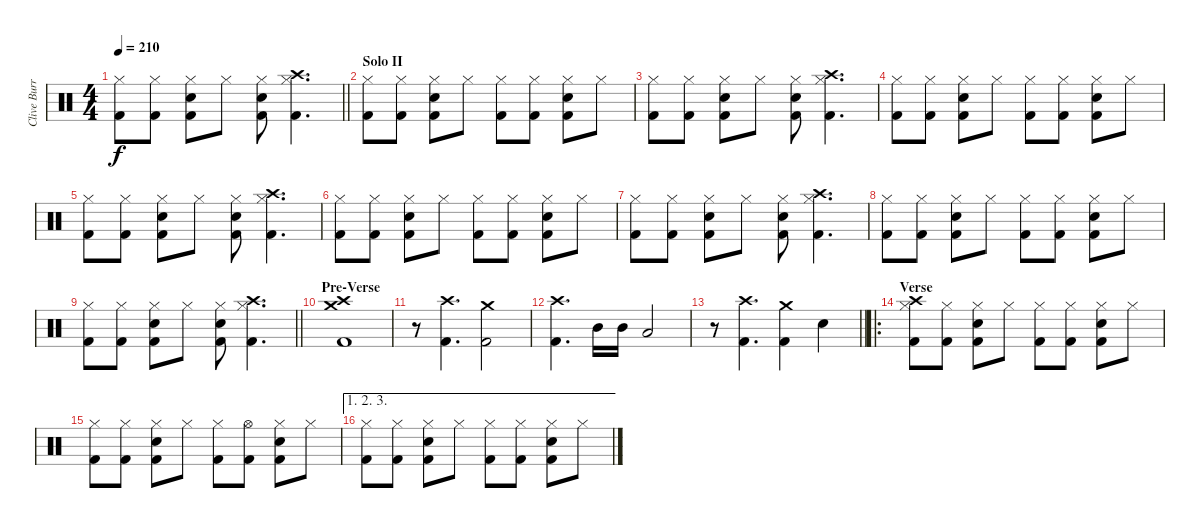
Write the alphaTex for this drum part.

\track ("Clive Burr" "Clive Burr") {instrument percussion}
\staff {score}
\articulation defaults
\ts (4 4)
\tempo 210
\clef neutral
\barLineRight lightlight
\ks c
("Hi-Hat (closed)" "Kick (hit) 2").8{dy f} ("Hi-Hat (closed)" "Kick (hit) 2").8 ("Snare (hit) 2" "Hi-Hat (closed)" "Kick (hit) 2").8 "Hi-Hat (closed)".8 ("Snare (hit) 2" "Hi-Hat (closed)" "Kick (hit) 2").8 ("Crash high (hit)" "Hi-Hat (closed)" "Kick (hit) 2").4{d} |
\section ("" "Solo II")
("Hi-Hat (closed)" "Kick (hit) 2").8 ("Hi-Hat (closed)" "Kick (hit) 2").8 ("Snare (hit) 2" "Hi-Hat (closed)" "Kick (hit) 2").8 "Hi-Hat (closed)".8 ("Hi-Hat (closed)" "Kick (hit) 2").8 ("Hi-Hat (closed)" "Kick (hit) 2").8 ("Snare (hit) 2" "Hi-Hat (closed)" "Kick (hit) 2").8 "Hi-Hat (closed)".8 |
("Hi-Hat (closed)" "Kick (hit) 2").8 ("Hi-Hat (closed)" "Kick (hit) 2").8 ("Snare (hit) 2" "Hi-Hat (closed)" "Kick (hit) 2").8 "Hi-Hat (closed)".8 ("Snare (hit) 2" "Hi-Hat (closed)" "Kick (hit) 2").8 ("Crash high (hit)" "Hi-Hat (closed)" "Kick (hit) 2").4{d} |
("Hi-Hat (closed)" "Kick (hit) 2").8 ("Hi-Hat (closed)" "Kick (hit) 2").8 ("Snare (hit) 2" "Hi-Hat (closed)" "Kick (hit) 2").8 "Hi-Hat (closed)".8 ("Hi-Hat (closed)" "Kick (hit) 2").8 ("Hi-Hat (closed)" "Kick (hit) 2").8 ("Snare (hit) 2" "Hi-Hat (closed)" "Kick (hit) 2").8 "Hi-Hat (closed)".8 |
("Hi-Hat (closed)" "Kick (hit) 2").8 ("Hi-Hat (closed)" "Kick (hit) 2").8 ("Snare (hit) 2" "Hi-Hat (closed)" "Kick (hit) 2").8 "Hi-Hat (closed)".8 ("Snare (hit) 2" "Hi-Hat (closed)" "Kick (hit) 2").8 ("Crash high (hit)" "Hi-Hat (closed)" "Kick (hit) 2").4{d} |
("Hi-Hat (closed)" "Kick (hit) 2").8 ("Hi-Hat (closed)" "Kick (hit) 2").8 ("Snare (hit) 2" "Hi-Hat (closed)" "Kick (hit) 2").8 "Hi-Hat (closed)".8 ("Hi-Hat (closed)" "Kick (hit) 2").8 ("Hi-Hat (closed)" "Kick (hit) 2").8 ("Snare (hit) 2" "Hi-Hat (closed)" "Kick (hit) 2").8 "Hi-Hat (closed)".8 |
("Hi-Hat (closed)" "Kick (hit) 2").8 ("Hi-Hat (closed)" "Kick (hit) 2").8 ("Snare (hit) 2" "Hi-Hat (closed)" "Kick (hit) 2").8 "Hi-Hat (closed)".8 ("Snare (hit) 2" "Hi-Hat (closed)" "Kick (hit) 2").8 ("Crash high (hit)" "Hi-Hat (closed)" "Kick (hit) 2").4{d} |
("Hi-Hat (closed)" "Kick (hit) 2").8 ("Hi-Hat (closed)" "Kick (hit) 2").8 ("Snare (hit) 2" "Hi-Hat (closed)" "Kick (hit) 2").8 "Hi-Hat (closed)".8 ("Hi-Hat (closed)" "Kick (hit) 2").8 ("Hi-Hat (closed)" "Kick (hit) 2").8 ("Snare (hit) 2" "Hi-Hat (closed)" "Kick (hit) 2").8 "Hi-Hat (closed)".8 |
\barLineRight lightlight
("Hi-Hat (closed)" "Kick (hit) 2").8 ("Hi-Hat (closed)" "Kick (hit) 2").8 ("Snare (hit) 2" "Hi-Hat (closed)" "Kick (hit) 2").8 "Hi-Hat (closed)".8 ("Snare (hit) 2" "Hi-Hat (closed)" "Kick (hit) 2").8 ("Crash high (hit)" "Hi-Hat (closed)" "Kick (hit) 2").4{d} |
\section ("" "Pre-Verse")
("Crash high (hit)" "Crash medium (hit)" "Kick (hit) 2").1 |
r.8 ("Crash high (hit)" "Kick (hit) 2").4{d} ("Crash medium (hit)" "Kick (hit) 2").2 |
("Crash high (hit)" "Kick (hit) 2").4{d} "Mid Tom (hit)".16 "Mid Tom (hit)".16 "Low Tom (hit)".2 |
\barLineRight lightlight
r.8 ("Crash high (hit)" "Kick (hit) 2").4{d} ("Crash medium (hit)" "Kick (hit) 2").4 "Snare (hit) 2".4 |
\ro
\section ("" "Verse")
("Crash high (hit)" "Hi-Hat (closed)" "Kick (hit) 2").8 ("Hi-Hat (closed)" "Kick (hit) 2").8 ("Snare (hit) 2" "Hi-Hat (closed)" "Kick (hit) 2").8 "Hi-Hat (closed)".8 ("Hi-Hat (closed)" "Kick (hit) 2").8 ("Hi-Hat (closed)" "Kick (hit) 2").8 ("Snare (hit) 2" "Hi-Hat (closed)" "Kick (hit) 2").8 "Hi-Hat (closed)".8 |
("Hi-Hat (closed)" "Kick (hit) 2").8 ("Hi-Hat (closed)" "Kick (hit) 2").8 ("Snare (hit) 2" "Hi-Hat (closed)" "Kick (hit) 2").8 "Hi-Hat (closed)".8 ("Hi-Hat (closed)" "Kick (hit) 2").8 ("Hi-Hat (open)" "Kick (hit) 2").8 ("Snare (hit) 2" "Hi-Hat (closed)" "Kick (hit) 2").8 "Hi-Hat (closed)".8 |
\ae (1 2 3)
("Hi-Hat (closed)" "Kick (hit) 2").8 ("Hi-Hat (closed)" "Kick (hit) 2").8 ("Snare (hit) 2" "Hi-Hat (closed)" "Kick (hit) 2").8 "Hi-Hat (closed)".8 ("Hi-Hat (closed)" "Kick (hit) 2").8 ("Hi-Hat (closed)" "Kick (hit) 2").8 ("Snare (hit) 2" "Hi-Hat (closed)" "Kick (hit) 2").8 "Hi-Hat (closed)".8
